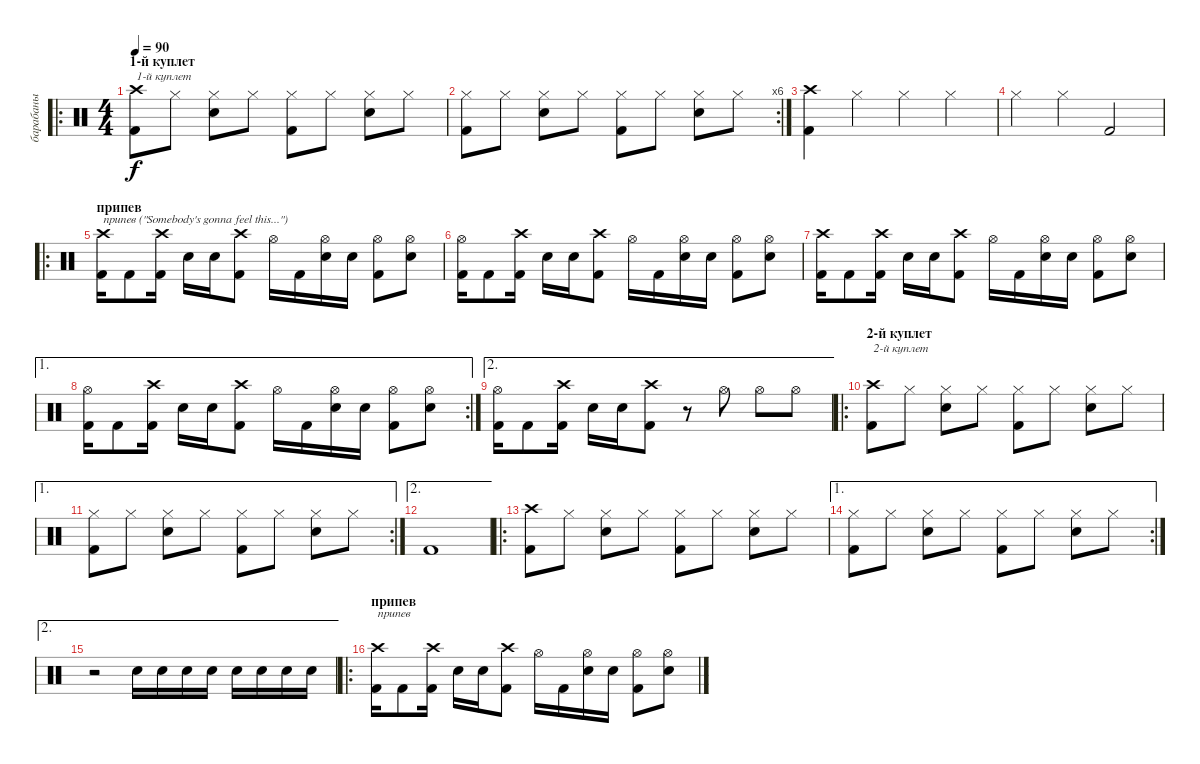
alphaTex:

\track ("барабаны" "барабаны") {instrument percussion}
\staff {score}
\articulation defaults
\ro
\ts (4 4)
\section ("" "1-й куплет")
\tempo 90
\clef neutral
\ks c
("Crash high (hit)" "Kick (hit) 2").8{txt "1-й куплет" dy f} "Hi-Hat (closed)".8 ("Hi-Hat (closed)" "Snare (hit) 2").8 "Hi-Hat (closed)".8 ("Hi-Hat (closed)" "Kick (hit) 2").8 "Hi-Hat (closed)".8 ("Hi-Hat (closed)" "Snare (hit) 2").8 "Hi-Hat (closed)".8 |
\rc 6
("Hi-Hat (closed)" "Kick (hit) 2").8 "Hi-Hat (closed)".8 ("Hi-Hat (closed)" "Snare (hit) 2").8 "Hi-Hat (closed)".8 ("Hi-Hat (closed)" "Kick (hit) 2").8 "Hi-Hat (closed)".8 ("Hi-Hat (closed)" "Snare (hit) 2").8 "Hi-Hat (closed)".8 |
("Crash high (hit)" "Kick (hit) 2").4 "Hi-Hat (closed)".4 "Hi-Hat (closed)".4 "Hi-Hat (closed)".4 |
"Hi-Hat (closed)".4 "Hi-Hat (closed)".4 "Kick (hit) 2".2 |
\ro
\section ("" "припев")
("Crash high (hit)" "Kick (hit) 2").16{txt "припев (\"Somebody's gonna feel this...\")"} "Kick (hit) 2".8 ("Crash high (hit)" "Kick (hit) 2").16 "Snare (hit) 2".16 "Snare (hit) 2".16 ("Crash high (hit)" "Kick (hit) 2").8 "Hi-Hat (open)".16 "Kick (hit) 2".16 ("Hi-Hat (open)" "Snare (hit) 2").16 "Snare (hit) 2".16 ("Hi-Hat (open)" "Kick (hit) 2").8 ("Hi-Hat (open)" "Snare (hit) 2").8 |
("Hi-Hat (open)" "Kick (hit) 2").16 "Kick (hit) 2".8 ("Crash high (hit)" "Kick (hit) 2").16 "Snare (hit) 2".16 "Snare (hit) 2".16 ("Crash high (hit)" "Kick (hit) 2").8 "Hi-Hat (open)".16 "Kick (hit) 2".16 ("Hi-Hat (open)" "Snare (hit) 2").16 "Snare (hit) 2".16 ("Hi-Hat (open)" "Kick (hit) 2").8 ("Hi-Hat (open)" "Snare (hit) 2").8 |
("Crash high (hit)" "Kick (hit) 2").16 "Kick (hit) 2".8 ("Crash high (hit)" "Kick (hit) 2").16 "Snare (hit) 2".16 "Snare (hit) 2".16 ("Crash high (hit)" "Kick (hit) 2").8 "Hi-Hat (open)".16 "Kick (hit) 2".16 ("Hi-Hat (open)" "Snare (hit) 2").16 "Snare (hit) 2".16 ("Hi-Hat (open)" "Kick (hit) 2").8 ("Hi-Hat (open)" "Snare (hit) 2").8 |
\ae 1
\rc 2
("Hi-Hat (open)" "Kick (hit) 2").16 "Kick (hit) 2".8 ("Crash high (hit)" "Kick (hit) 2").16 "Snare (hit) 2".16 "Snare (hit) 2".16 ("Crash high (hit)" "Kick (hit) 2").8 "Hi-Hat (open)".16 "Kick (hit) 2".16 ("Hi-Hat (open)" "Snare (hit) 2").16 "Snare (hit) 2".16 ("Hi-Hat (open)" "Kick (hit) 2").8 ("Hi-Hat (open)" "Snare (hit) 2").8 |
\ae 2
("Hi-Hat (open)" "Kick (hit) 2").16 "Kick (hit) 2".8 ("Crash high (hit)" "Kick (hit) 2").16 "Snare (hit) 2".16 "Snare (hit) 2".16 ("Crash high (hit)" "Kick (hit) 2").8 r.8 "Hi-Hat (open)".8 "Hi-Hat (open)".8 "Hi-Hat (open)".8 |
\ro
\section ("" "2-й куплет")
("Crash high (hit)" "Kick (hit) 2").8{txt "2-й куплет"} "Hi-Hat (closed)".8 ("Hi-Hat (closed)" "Snare (hit) 2").8 "Hi-Hat (closed)".8 ("Hi-Hat (closed)" "Kick (hit) 2").8 "Hi-Hat (closed)".8 ("Hi-Hat (closed)" "Snare (hit) 2").8 "Hi-Hat (closed)".8 |
\ae 1
\rc 2
("Hi-Hat (closed)" "Kick (hit) 2").8 "Hi-Hat (closed)".8 ("Hi-Hat (closed)" "Snare (hit) 2").8 "Hi-Hat (closed)".8 ("Hi-Hat (closed)" "Kick (hit) 2").8 "Hi-Hat (closed)".8 ("Hi-Hat (closed)" "Snare (hit) 2").8 "Hi-Hat (closed)".8 |
\ae 2 "Kick (hit) 2".1
|
\ro
("Crash high (hit)" "Kick (hit) 2").8 "Hi-Hat (closed)".8 ("Hi-Hat (closed)" "Snare (hit) 2").8 "Hi-Hat (closed)".8 ("Hi-Hat (closed)" "Kick (hit) 2").8 "Hi-Hat (closed)".8 ("Hi-Hat (closed)" "Snare (hit) 2").8 "Hi-Hat (closed)".8 |
\ae 1
\rc 2
("Hi-Hat (closed)" "Kick (hit) 2").8 "Hi-Hat (closed)".8 ("Hi-Hat (closed)" "Snare (hit) 2").8 "Hi-Hat (closed)".8 ("Hi-Hat (closed)" "Kick (hit) 2").8 "Hi-Hat (closed)".8 ("Hi-Hat (closed)" "Snare (hit) 2").8 "Hi-Hat (closed)".8 |
\ae 2
r.2 "Snare (hit) 2".16 "Snare (hit) 2".16 "Snare (hit) 2".16 "Snare (hit) 2".16 "Snare (hit) 2".16 "Snare (hit) 2".16 "Snare (hit) 2".16 "Snare (hit) 2".16 |
\ro
\section ("" "припев")
("Crash high (hit)" "Kick (hit) 2").16{txt "припев"} "Kick (hit) 2".8 ("Crash high (hit)" "Kick (hit) 2").16 "Snare (hit) 2".16 "Snare (hit) 2".16 ("Crash high (hit)" "Kick (hit) 2").8 "Hi-Hat (open)".16 "Kick (hit) 2".16 ("Hi-Hat (open)" "Snare (hit) 2").16 "Snare (hit) 2".16 ("Hi-Hat (open)" "Kick (hit) 2").8 ("Hi-Hat (open)" "Snare (hit) 2").8
